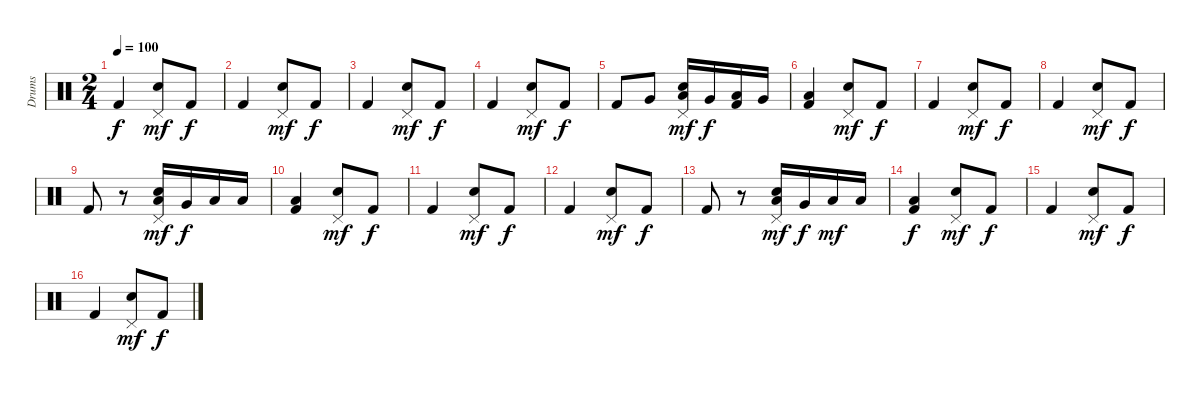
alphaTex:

\track ("Drums" "Drums") {instrument percussion}
\staff {score}
\articulation defaults
\ts (2 4)
\tempo 100
\clef neutral
\ks c "Kick (hit) 2".4{dy f}
("Pedal Hi-Hat (hit)" "Electric Snare (hit)").8{dy mf} "Kick (hit) 2".8{dy f} |
"Kick (hit) 2".4 ("Pedal Hi-Hat (hit)" "Electric Snare (hit)").8{dy mf} "Kick (hit) 2".8{dy f} |
"Kick (hit) 2".4 ("Pedal Hi-Hat (hit)" "Electric Snare (hit)").8{dy mf} "Kick (hit) 2".8{dy f} |
"Kick (hit) 2".4 ("Pedal Hi-Hat (hit)" "Electric Snare (hit)").8{dy mf} "Kick (hit) 2".8{dy f} |
"Kick (hit) 2".8 "Very Low Tom (hit)".8 ("Pedal Hi-Hat (hit)" "Low Floor Tom (hit)" "Electric Snare (hit)").16{dy mf} "Very Low Tom (hit)".16{dy f} ("Low Floor Tom (hit)" "Kick (hit) 2").16 "Very Low Tom (hit)".16 |
("Low Floor Tom (hit)" "Kick (hit) 2").4 ("Pedal Hi-Hat (hit)" "Electric Snare (hit)").8{dy mf} "Kick (hit) 2".8{dy f} |
"Kick (hit) 2".4 ("Pedal Hi-Hat (hit)" "Electric Snare (hit)").8{dy mf} "Kick (hit) 2".8{dy f} |
"Kick (hit) 2".4 ("Pedal Hi-Hat (hit)" "Electric Snare (hit)").8{dy mf} "Kick (hit) 2".8{dy f} |
"Kick (hit) 2".8 r.8 ("Pedal Hi-Hat (hit)" "Low Floor Tom (hit)" "Electric Snare (hit)").16{dy mf} "Very Low Tom (hit)".16{dy f} "Low Floor Tom (hit)".16 "Low Floor Tom (hit)".16 |
("Low Floor Tom (hit)" "Kick (hit) 2").4 ("Pedal Hi-Hat (hit)" "Electric Snare (hit)").8{dy mf} "Kick (hit) 2".8{dy f} |
"Kick (hit) 2".4 ("Pedal Hi-Hat (hit)" "Electric Snare (hit)").8{dy mf} "Kick (hit) 2".8{dy f} |
"Kick (hit) 2".4 ("Pedal Hi-Hat (hit)" "Electric Snare (hit)").8{dy mf} "Kick (hit) 2".8{dy f} |
"Kick (hit) 2".8 r.8 ("Pedal Hi-Hat (hit)" "Low Floor Tom (hit)" "Electric Snare (hit)").16{dy mf} "Very Low Tom (hit)".16{dy f} "Low Floor Tom (hit)".16{dy mf} "Low Floor Tom (hit)".16 |
("Low Floor Tom (hit)" "Kick (hit) 2").4{dy f} ("Pedal Hi-Hat (hit)" "Electric Snare (hit)").8{dy mf} "Kick (hit) 2".8{dy f} |
"Kick (hit) 2".4 ("Pedal Hi-Hat (hit)" "Electric Snare (hit)").8{dy mf} "Kick (hit) 2".8{dy f} |
"Kick (hit) 2".4 ("Pedal Hi-Hat (hit)" "Electric Snare (hit)").8{dy mf} "Kick (hit) 2".8{dy f}
